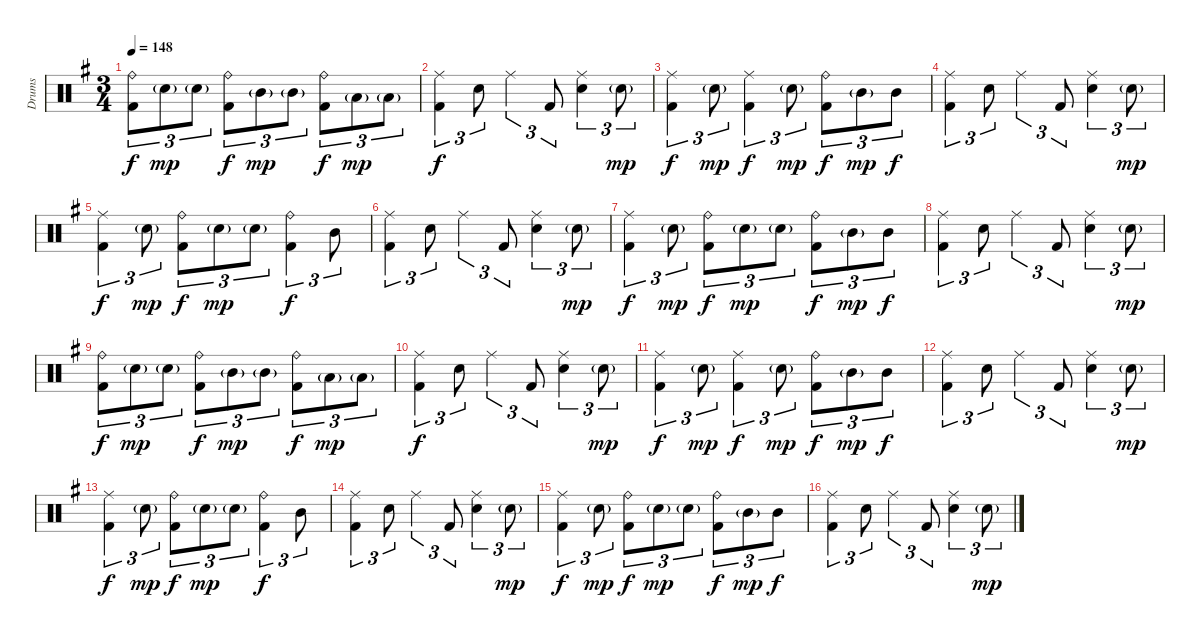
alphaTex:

\track ("Drums" "Drums") {instrument percussion}
\staff {score}
\articulation defaults
\ts (3 4)
\tempo 148
\clef neutral
\ks g
("Ride (bell)" "Kick (hit) 2").8{tu (3 2) dy f} "Electric Snare (hit)"{g}.8{tu (3 2) dy mp} "Electric Snare (hit)"{g}.8{tu (3 2)} ("Ride (bell)" "Kick (hit) 2").8{tu (3 2) dy f} "Mid Tom (hit)"{g}.8{tu (3 2) dy mp} "Mid Tom (hit)"{g}.8{tu (3 2)} ("Ride (bell)" "Kick (hit) 2").8{tu (3 2) dy f} "Low Tom (hit)"{g}.8{tu (3 2) dy mp} "Low Tom (hit)"{g}.8{tu (3 2)} |
("Ride (middle)" "Kick (hit) 2").4{tu (3 2) dy f} "Electric Snare (hit)".8{tu (3 2)} "Ride (middle)".4{tu (3 2)} "Kick (hit) 2".8{tu (3 2)} ("Ride (middle)" "Electric Snare (hit)").4{tu (3 2)} "Electric Snare (hit)"{g}.8{tu (3 2) dy mp} |
("Ride (middle)" "Kick (hit) 2").4{tu (3 2) dy f} "Electric Snare (hit)"{g}.8{tu (3 2) dy mp} ("Ride (middle)" "Kick (hit) 2").4{tu (3 2) dy f} "Electric Snare (hit)"{g}.8{tu (3 2) dy mp} ("Ride (bell)" "Kick (hit) 2").8{tu (3 2) dy f} "Mid Tom (hit)"{g}.8{tu (3 2) dy mp} "Mid Tom (hit)".8{tu (3 2) dy f} |
("Ride (middle)" "Kick (hit) 2").4{tu (3 2)} "Electric Snare (hit)".8{tu (3 2)} "Ride (middle)".4{tu (3 2)} "Kick (hit) 2".8{tu (3 2)} ("Ride (middle)" "Electric Snare (hit)").4{tu (3 2)} "Electric Snare (hit)"{g}.8{tu (3 2) dy mp} |
("Ride (middle)" "Kick (hit) 2").4{tu (3 2) dy f} "Electric Snare (hit)"{g}.8{tu (3 2) dy mp} ("Ride (bell)" "Kick (hit) 2").8{tu (3 2) dy f} "Electric Snare (hit)"{g}.8{tu (3 2) dy mp} "Electric Snare (hit)"{g}.8{tu (3 2)} ("Ride (bell)" "Kick (hit) 2").4{tu (3 2) dy f} "Mid Tom (hit)".8{tu (3 2)} |
("Ride (middle)" "Kick (hit) 2").4{tu (3 2)} "Electric Snare (hit)".8{tu (3 2)} "Ride (middle)".4{tu (3 2)} "Kick (hit) 2".8{tu (3 2)} ("Ride (middle)" "Electric Snare (hit)").4{tu (3 2)} "Electric Snare (hit)"{g}.8{tu (3 2) dy mp} |
("Ride (middle)" "Kick (hit) 2").4{tu (3 2) dy f} "Electric Snare (hit)"{g}.8{tu (3 2) dy mp} ("Ride (bell)" "Kick (hit) 2").8{tu (3 2) dy f} "Electric Snare (hit)"{g}.8{tu (3 2) dy mp} "Electric Snare (hit)"{g}.8{tu (3 2)} ("Ride (bell)" "Kick (hit) 2").8{tu (3 2) dy f} "Mid Tom (hit)"{g}.8{tu (3 2) dy mp} "Mid Tom (hit)".8{tu (3 2) dy f} |
("Ride (middle)" "Kick (hit) 2").4{tu (3 2)} "Electric Snare (hit)".8{tu (3 2)} "Ride (middle)".4{tu (3 2)} "Kick (hit) 2".8{tu (3 2)} ("Ride (middle)" "Electric Snare (hit)").4{tu (3 2)} "Electric Snare (hit)"{g}.8{tu (3 2) dy mp} |
("Ride (bell)" "Kick (hit) 2").8{tu (3 2) dy f} "Electric Snare (hit)"{g}.8{tu (3 2) dy mp} "Electric Snare (hit)"{g}.8{tu (3 2)} ("Ride (bell)" "Kick (hit) 2").8{tu (3 2) dy f} "Mid Tom (hit)"{g}.8{tu (3 2) dy mp} "Mid Tom (hit)"{g}.8{tu (3 2)} ("Ride (bell)" "Kick (hit) 2").8{tu (3 2) dy f} "Low Tom (hit)"{g}.8{tu (3 2) dy mp} "Low Tom (hit)"{g}.8{tu (3 2)} |
("Ride (middle)" "Kick (hit) 2").4{tu (3 2) dy f} "Electric Snare (hit)".8{tu (3 2)} "Ride (middle)".4{tu (3 2)} "Kick (hit) 2".8{tu (3 2)} ("Ride (middle)" "Electric Snare (hit)").4{tu (3 2)} "Electric Snare (hit)"{g}.8{tu (3 2) dy mp} |
("Ride (middle)" "Kick (hit) 2").4{tu (3 2) dy f} "Electric Snare (hit)"{g}.8{tu (3 2) dy mp} ("Ride (middle)" "Kick (hit) 2").4{tu (3 2) dy f} "Electric Snare (hit)"{g}.8{tu (3 2) dy mp} ("Ride (bell)" "Kick (hit) 2").8{tu (3 2) dy f} "Mid Tom (hit)"{g}.8{tu (3 2) dy mp} "Mid Tom (hit)".8{tu (3 2) dy f} |
("Ride (middle)" "Kick (hit) 2").4{tu (3 2)} "Electric Snare (hit)".8{tu (3 2)} "Ride (middle)".4{tu (3 2)} "Kick (hit) 2".8{tu (3 2)} ("Ride (middle)" "Electric Snare (hit)").4{tu (3 2)} "Electric Snare (hit)"{g}.8{tu (3 2) dy mp} |
("Ride (middle)" "Kick (hit) 2").4{tu (3 2) dy f} "Electric Snare (hit)"{g}.8{tu (3 2) dy mp} ("Ride (bell)" "Kick (hit) 2").8{tu (3 2) dy f} "Electric Snare (hit)"{g}.8{tu (3 2) dy mp} "Electric Snare (hit)"{g}.8{tu (3 2)} ("Ride (bell)" "Kick (hit) 2").4{tu (3 2) dy f} "Mid Tom (hit)".8{tu (3 2)} |
("Ride (middle)" "Kick (hit) 2").4{tu (3 2)} "Electric Snare (hit)".8{tu (3 2)} "Ride (middle)".4{tu (3 2)} "Kick (hit) 2".8{tu (3 2)} ("Ride (middle)" "Electric Snare (hit)").4{tu (3 2)} "Electric Snare (hit)"{g}.8{tu (3 2) dy mp} |
("Ride (middle)" "Kick (hit) 2").4{tu (3 2) dy f} "Electric Snare (hit)"{g}.8{tu (3 2) dy mp} ("Ride (bell)" "Kick (hit) 2").8{tu (3 2) dy f} "Electric Snare (hit)"{g}.8{tu (3 2) dy mp} "Electric Snare (hit)"{g}.8{tu (3 2)} ("Ride (bell)" "Kick (hit) 2").8{tu (3 2) dy f} "Mid Tom (hit)"{g}.8{tu (3 2) dy mp} "Mid Tom (hit)".8{tu (3 2) dy f} |
("Ride (middle)" "Kick (hit) 2").4{tu (3 2)} "Electric Snare (hit)".8{tu (3 2)} "Ride (middle)".4{tu (3 2)} "Kick (hit) 2".8{tu (3 2)} ("Ride (middle)" "Electric Snare (hit)").4{tu (3 2)} "Electric Snare (hit)"{g}.8{tu (3 2) dy mp}
